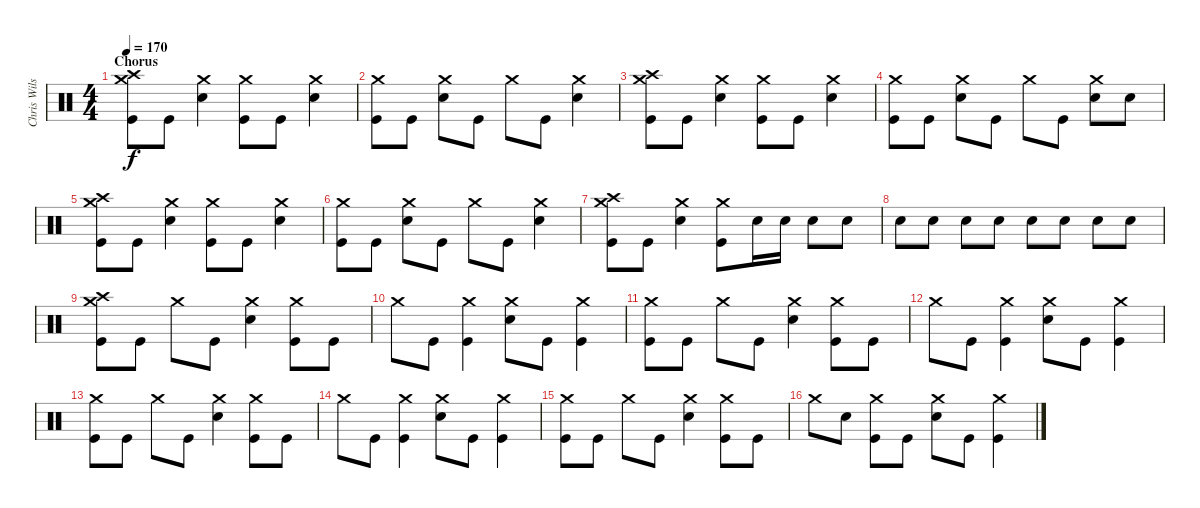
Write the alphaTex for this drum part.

\track ("Chris Wilson" "Chris Wils") {instrument percussion}
\staff {score}
\articulation defaults
\ts (4 4)
\section ("" "Chorus")
\tempo 170
\clef neutral
\ks c
("Crash high (hit)" "Crash medium (hit)" "Kick (hit)").8{dy f} "Kick (hit)".8 ("Crash medium (hit)" "Electric Snare (hit)").4 ("Crash medium (hit)" "Kick (hit)").8 "Kick (hit)".8 ("Crash medium (hit)" "Electric Snare (hit)").4 |
("Crash medium (hit)" "Kick (hit)").8 "Kick (hit)".8 ("Crash medium (hit)" "Electric Snare (hit)").8 "Kick (hit)".8 "Crash medium (hit)".8 "Kick (hit)".8 ("Crash medium (hit)" "Electric Snare (hit)").4 |
("Crash high (hit)" "Crash medium (hit)" "Kick (hit)").8 "Kick (hit)".8 ("Crash medium (hit)" "Electric Snare (hit)").4 ("Crash medium (hit)" "Kick (hit)").8 "Kick (hit)".8 ("Crash medium (hit)" "Electric Snare (hit)").4 |
("Crash medium (hit)" "Kick (hit)").8 "Kick (hit)".8 ("Crash medium (hit)" "Electric Snare (hit)").8 "Kick (hit)".8 "Crash medium (hit)".8 "Kick (hit)".8 ("Crash medium (hit)" "Electric Snare (hit)").8 "Electric Snare (hit)".8 |
("Crash high (hit)" "Crash medium (hit)" "Kick (hit)").8 "Kick (hit)".8 ("Crash medium (hit)" "Electric Snare (hit)").4 ("Crash medium (hit)" "Kick (hit)").8 "Kick (hit)".8 ("Crash medium (hit)" "Electric Snare (hit)").4 |
("Crash medium (hit)" "Kick (hit)").8 "Kick (hit)".8 ("Crash medium (hit)" "Electric Snare (hit)").8 "Kick (hit)".8 "Crash medium (hit)".8 "Kick (hit)".8 ("Crash medium (hit)" "Electric Snare (hit)").4 |
("Crash high (hit)" "Crash medium (hit)" "Kick (hit)").8 "Kick (hit)".8 ("Crash medium (hit)" "Electric Snare (hit)").4 ("Crash medium (hit)" "Kick (hit)").8 "Electric Snare (hit)".16 "Electric Snare (hit)".16 "Electric Snare (hit)".8 "Electric Snare (hit)".8 |
"Electric Snare (hit)".8 "Electric Snare (hit)".8 "Electric Snare (hit)".8 "Electric Snare (hit)".8 "Electric Snare (hit)".8 "Electric Snare (hit)".8 "Electric Snare (hit)".8 "Electric Snare (hit)".8 |
("Crash high (hit)" "Crash medium (hit)" "Kick (hit)").8 "Kick (hit)".8 "Crash medium (hit)".8 "Kick (hit)".8 ("Crash medium (hit)" "Electric Snare (hit)").4 ("Crash medium (hit)" "Kick (hit)").8 "Kick (hit)".8 |
"Crash medium (hit)".8 "Kick (hit)".8 ("Crash medium (hit)" "Kick (hit)").4 ("Crash medium (hit)" "Electric Snare (hit)").8 "Kick (hit)".8 ("Crash medium (hit)" "Kick (hit)").4 |
("Crash medium (hit)" "Kick (hit)").8 "Kick (hit)".8 "Crash medium (hit)".8 "Kick (hit)".8 ("Crash medium (hit)" "Electric Snare (hit)").4 ("Crash medium (hit)" "Kick (hit)").8 "Kick (hit)".8 |
"Crash medium (hit)".8 "Kick (hit)".8 ("Crash medium (hit)" "Kick (hit)").4 ("Crash medium (hit)" "Electric Snare (hit)").8 "Kick (hit)".8 ("Crash medium (hit)" "Kick (hit)").4 |
("Crash medium (hit)" "Kick (hit)").8 "Kick (hit)".8 "Crash medium (hit)".8 "Kick (hit)".8 ("Crash medium (hit)" "Electric Snare (hit)").4 ("Crash medium (hit)" "Kick (hit)").8 "Kick (hit)".8 |
"Crash medium (hit)".8 "Kick (hit)".8 ("Crash medium (hit)" "Kick (hit)").4 ("Crash medium (hit)" "Electric Snare (hit)").8 "Kick (hit)".8 ("Crash medium (hit)" "Kick (hit)").4 |
("Crash medium (hit)" "Kick (hit)").8 "Kick (hit)".8 "Crash medium (hit)".8 "Kick (hit)".8 ("Crash medium (hit)" "Electric Snare (hit)").4 ("Crash medium (hit)" "Kick (hit)").8 "Kick (hit)".8 |
"Crash medium (hit)".8 "Electric Snare (hit)".8 ("Crash medium (hit)" "Kick (hit)").8 "Kick (hit)".8 ("Crash medium (hit)" "Electric Snare (hit)").8 "Kick (hit)".8 ("Crash medium (hit)" "Kick (hit)").4
